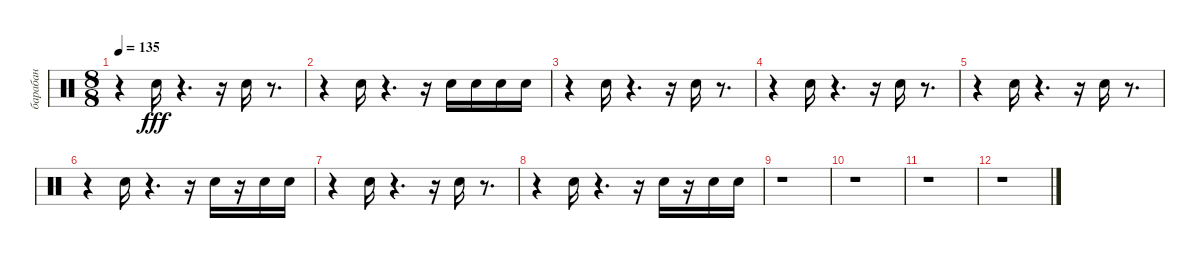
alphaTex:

\track ("барабан" "барабан") {instrument percussion}
\staff {score}
\articulation defaults
\ts (8 8)
\tempo 135
\clef neutral
\ks c
r.4{dy fff} "Snare (hit) 2".16 r.4{d} r.16 "Snare (hit) 2".16 r.8{d} |
r.4 "Snare (hit) 2".16 r.4{d} r.16 "Snare (hit) 2".16 "Snare (hit) 2".16 "Snare (hit) 2".16 "Snare (hit) 2".16 |
r.4 "Snare (hit) 2".16 r.4{d} r.16 "Snare (hit) 2".16 r.8{d} |
r.4 "Snare (hit) 2".16 r.4{d} r.16 "Snare (hit) 2".16 r.8{d} |
r.4 "Snare (hit) 2".16 r.4{d} r.16 "Snare (hit) 2".16 r.8{d} |
r.4 "Snare (hit) 2".16 r.4{d} r.16 "Snare (hit) 2".16 r.16 "Snare (hit) 2".16 "Snare (hit) 2".16 |
r.4 "Snare (hit) 2".16 r.4{d} r.16 "Snare (hit) 2".16 r.8{d} |
r.4 "Snare (hit) 2".16 r.4{d} r.16 "Snare (hit) 2".16 r.16 "Snare (hit) 2".16 "Snare (hit) 2".16 |
r.1 |
r.1 |
r.1 |
r.1
